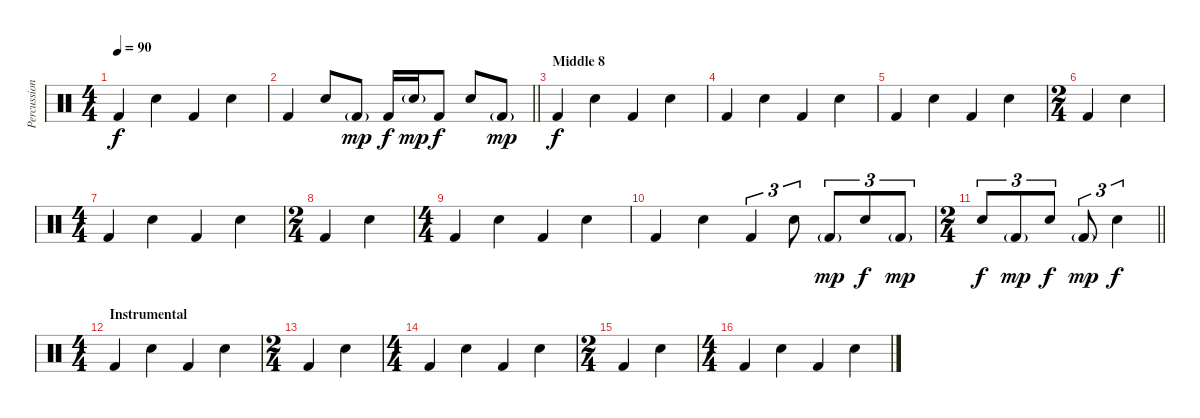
\track ("Percussion" "Percussion") {instrument percussion}
\staff {score}
\articulation defaults
\ts (4 4)
\tempo 90
\clef neutral
\ks c "Kick (hit) 2".4{dy f} "Snare (hit) 2".4 "Kick (hit) 2".4 "Snare (hit) 2".4
|
\barLineRight lightlight "Kick (hit) 2".4 "Snare (hit) 2".8 "Kick (hit) 2"{g}.8{dy mp} "Kick (hit) 2".16{dy f} "Snare (hit) 2"{g}.16{dy mp} "Kick (hit) 2".8{dy f} "Snare (hit) 2".8 "Kick (hit) 2"{g}.8{dy mp}
|
\section ("" "Middle 8")
"Kick (hit) 2".4{dy f} "Snare (hit) 2".4 "Kick (hit) 2".4 "Snare (hit) 2".4 |
"Kick (hit) 2".4 "Snare (hit) 2".4 "Kick (hit) 2".4 "Snare (hit) 2".4 |
"Kick (hit) 2".4 "Snare (hit) 2".4 "Kick (hit) 2".4 "Snare (hit) 2".4 |
\ts (2 4)
"Kick (hit) 2".4 "Snare (hit) 2".4 |
\ts (4 4)
"Kick (hit) 2".4 "Snare (hit) 2".4 "Kick (hit) 2".4 "Snare (hit) 2".4 |
\ts (2 4)
"Kick (hit) 2".4 "Snare (hit) 2".4 |
\ts (4 4)
"Kick (hit) 2".4 "Snare (hit) 2".4 "Kick (hit) 2".4 "Snare (hit) 2".4 |
"Kick (hit) 2".4 "Snare (hit) 2".4 "Kick (hit) 2".4{tu (3 2)} "Snare (hit) 2".8{tu (3 2)} "Kick (hit) 2"{g}.8{tu (3 2) dy mp} "Snare (hit) 2".8{tu (3 2) dy f} "Kick (hit) 2"{g}.8{tu (3 2) dy mp} |
\ts (2 4)
\barLineRight lightlight "Snare (hit) 2".8{tu (3 2) dy f} "Kick (hit) 2"{g}.8{tu (3 2) dy mp} "Snare (hit) 2".8{tu (3 2) dy f} "Kick (hit) 2"{g}.8{tu (3 2) dy mp} "Snare (hit) 2".4{tu (3 2) dy f}
|
\ts (4 4)
\section ("" "Instrumental")
"Kick (hit) 2".4 "Snare (hit) 2".4 "Kick (hit) 2".4 "Snare (hit) 2".4 |
\ts (2 4)
"Kick (hit) 2".4 "Snare (hit) 2".4 |
\ts (4 4)
"Kick (hit) 2".4 "Snare (hit) 2".4 "Kick (hit) 2".4 "Snare (hit) 2".4 |
\ts (2 4)
"Kick (hit) 2".4 "Snare (hit) 2".4 |
\ts (4 4)
"Kick (hit) 2".4 "Snare (hit) 2".4 "Kick (hit) 2".4 "Snare (hit) 2".4
